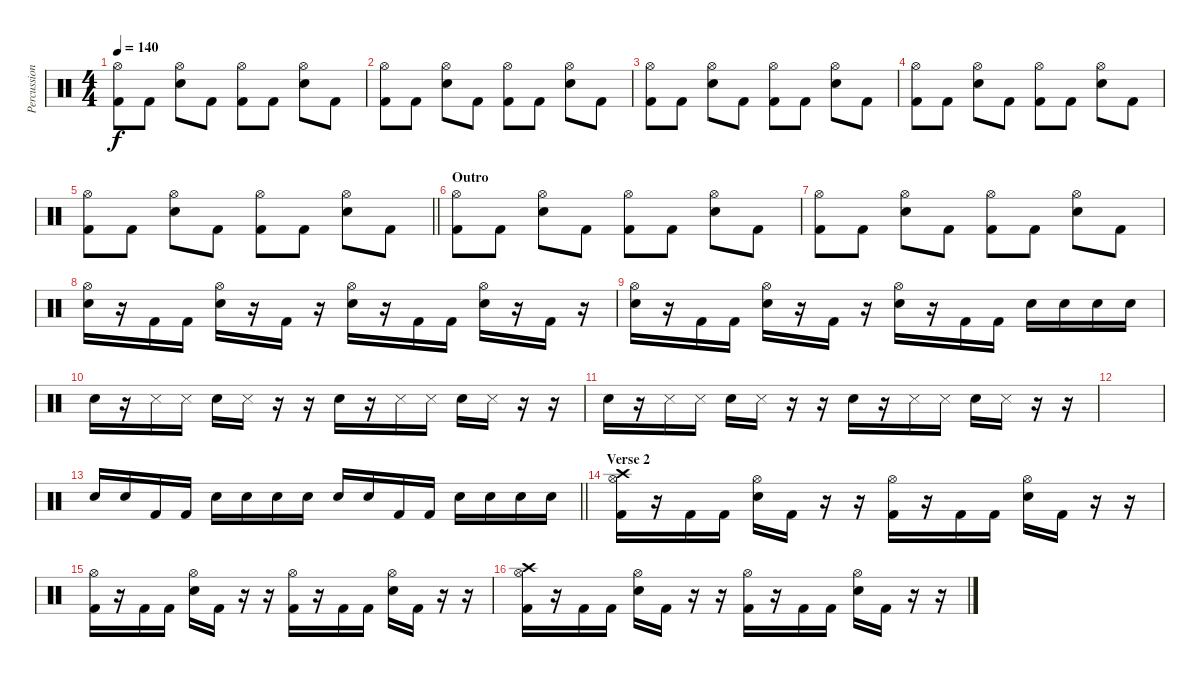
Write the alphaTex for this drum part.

\track ("Percussion" "Percussion") {instrument percussion}
\staff {score}
\articulation defaults
\ts (4 4)
\tempo 140
\clef neutral
\ks c
("Hi-Hat (open)" "Kick (hit) 2").8{dy f} "Kick (hit) 2".8 ("Hi-Hat (open)" "Snare (hit) 2").8 "Kick (hit) 2".8 ("Hi-Hat (open)" "Kick (hit) 2").8 "Kick (hit) 2".8 ("Hi-Hat (open)" "Snare (hit) 2").8 "Kick (hit) 2".8 |
("Hi-Hat (open)" "Kick (hit) 2").8 "Kick (hit) 2".8 ("Hi-Hat (open)" "Snare (hit) 2").8 "Kick (hit) 2".8 ("Hi-Hat (open)" "Kick (hit) 2").8 "Kick (hit) 2".8 ("Hi-Hat (open)" "Snare (hit) 2").8 "Kick (hit) 2".8 |
("Hi-Hat (open)" "Kick (hit) 2").8 "Kick (hit) 2".8 ("Hi-Hat (open)" "Snare (hit) 2").8 "Kick (hit) 2".8 ("Hi-Hat (open)" "Kick (hit) 2").8 "Kick (hit) 2".8 ("Hi-Hat (open)" "Snare (hit) 2").8 "Kick (hit) 2".8 |
("Hi-Hat (open)" "Kick (hit) 2").8 "Kick (hit) 2".8 ("Hi-Hat (open)" "Snare (hit) 2").8 "Kick (hit) 2".8 ("Hi-Hat (open)" "Kick (hit) 2").8 "Kick (hit) 2".8 ("Hi-Hat (open)" "Snare (hit) 2").8 "Kick (hit) 2".8 |
\barLineRight lightlight
("Hi-Hat (open)" "Kick (hit) 2").8 "Kick (hit) 2".8 ("Hi-Hat (open)" "Snare (hit) 2").8 "Kick (hit) 2".8 ("Hi-Hat (open)" "Kick (hit) 2").8 "Kick (hit) 2".8 ("Hi-Hat (open)" "Snare (hit) 2").8 "Kick (hit) 2".8 |
\section ("" "Outro")
("Hi-Hat (open)" "Kick (hit) 2").8 "Kick (hit) 2".8 ("Hi-Hat (open)" "Snare (hit) 2").8 "Kick (hit) 2".8 ("Hi-Hat (open)" "Kick (hit) 2").8 "Kick (hit) 2".8 ("Hi-Hat (open)" "Snare (hit) 2").8 "Kick (hit) 2".8 |
("Hi-Hat (open)" "Kick (hit) 2").8 "Kick (hit) 2".8 ("Hi-Hat (open)" "Snare (hit) 2").8 "Kick (hit) 2".8 ("Hi-Hat (open)" "Kick (hit) 2").8 "Kick (hit) 2".8 ("Hi-Hat (open)" "Snare (hit) 2").8 "Kick (hit) 2".8 |
("Hi-Hat (open)" "Snare (hit) 2").16 r.16 "Kick (hit) 2".16 "Kick (hit) 2".16 ("Hi-Hat (open)" "Snare (hit) 2").16 r.16 "Kick (hit) 2".16 r.16 ("Hi-Hat (open)" "Snare (hit) 2").16 r.16 "Kick (hit) 2".16 "Kick (hit) 2".16 ("Hi-Hat (open)" "Snare (hit) 2").16 r.16 "Kick (hit) 2".16 r.16 |
("Hi-Hat (open)" "Snare (hit) 2").16 r.16 "Kick (hit) 2".16 "Kick (hit) 2".16 ("Hi-Hat (open)" "Snare (hit) 2").16 r.16 "Kick (hit) 2".16 r.16 ("Hi-Hat (open)" "Snare (hit) 2").16 r.16 "Kick (hit) 2".16 "Kick (hit) 2".16 "Snare (hit) 2".16 "Snare (hit) 2".16 "Snare (hit) 2".16 "Snare (hit) 2".16 |
"Snare (hit) 2".16 r.16 "Snare (side stick) 3".16 "Snare (side stick) 3".16 "Snare (hit) 2".16 "Snare (side stick) 3".16 r.16 r.16 "Snare (hit) 2".16 r.16 "Snare (side stick) 3".16 "Snare (side stick) 3".16 "Snare (hit) 2".16 "Snare (side stick) 3".16 r.16 r.16 |
"Snare (hit) 2".16 r.16 "Snare (side stick) 3".16 "Snare (side stick) 3".16 "Snare (hit) 2".16 "Snare (side stick) 3".16 r.16 r.16 "Snare (hit) 2".16 r.16 "Snare (side stick) 3".16 "Snare (side stick) 3".16 "Snare (hit) 2".16 "Snare (side stick) 3".16 r.16 r.16 |
|
\barLineRight lightlight "Snare (hit) 2".16 "Snare (hit) 2".16 "Kick (hit) 2".16 "Kick (hit) 2".16 "Snare (hit) 2".16 "Snare (hit) 2".16 "Snare (hit) 2".16 "Snare (hit) 2".16 "Snare (hit) 2".16 "Snare (hit) 2".16 "Kick (hit) 2".16 "Kick (hit) 2".16 "Snare (hit) 2".16 "Snare (hit) 2".16 "Snare (hit) 2".16 "Snare (hit) 2".16
|
\section ("" "Verse 2")
("Crash high (hit)" "Hi-Hat (open)" "Kick (hit) 2").16 r.16 "Kick (hit) 2".16 "Kick (hit) 2".16 ("Hi-Hat (open)" "Snare (hit) 2").16 "Kick (hit) 2".16 r.16 r.16 ("Hi-Hat (open)" "Kick (hit) 2").16 r.16 "Kick (hit) 2".16 "Kick (hit) 2".16 ("Hi-Hat (open)" "Snare (hit) 2").16 "Kick (hit) 2".16 r.16 r.16 |
("Hi-Hat (open)" "Kick (hit) 2").16 r.16 "Kick (hit) 2".16 "Kick (hit) 2".16 ("Hi-Hat (open)" "Snare (hit) 2").16 "Kick (hit) 2".16 r.16 r.16 ("Hi-Hat (open)" "Kick (hit) 2").16 r.16 "Kick (hit) 2".16 "Kick (hit) 2".16 ("Hi-Hat (open)" "Snare (hit) 2").16 "Kick (hit) 2".16 r.16 r.16 |
("Crash high (hit)" "Hi-Hat (open)" "Kick (hit) 2").16 r.16 "Kick (hit) 2".16 "Kick (hit) 2".16 ("Hi-Hat (open)" "Snare (hit) 2").16 "Kick (hit) 2".16 r.16 r.16 ("Hi-Hat (open)" "Kick (hit) 2").16 r.16 "Kick (hit) 2".16 "Kick (hit) 2".16 ("Hi-Hat (open)" "Snare (hit) 2").16 "Kick (hit) 2".16 r.16 r.16
